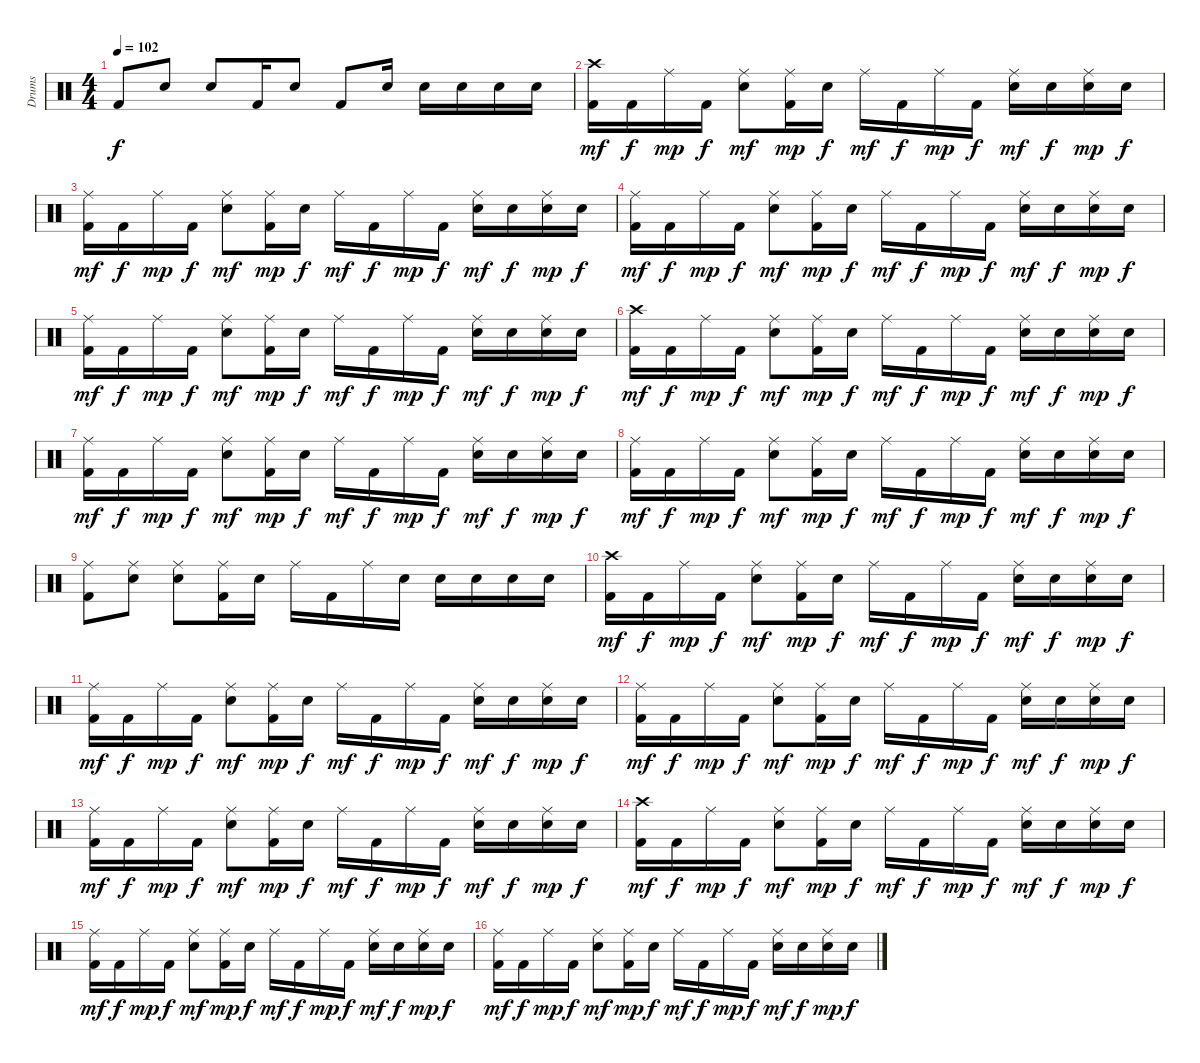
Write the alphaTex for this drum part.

\track ("Drums" "Drums") {instrument percussion}
\staff {score}
\articulation defaults
\ts (4 4)
\tempo 102
\clef neutral
\ks c "Kick (hit) 2".8{dy f} "Snare (hit) 2".8 "Snare (hit) 2".8 "Kick (hit) 2".16 "Snare (hit) 2".8 "Kick (hit) 2".8 "Snare (hit) 2".16 "Snare (hit) 2".16 "Snare (hit) 2".16 "Snare (hit) 2".16 "Snare (hit) 2".16
|
("Crash high (hit)" "Kick (hit) 2").16{dy mf} "Kick (hit) 2".16{dy f} "Ride (middle)".16{dy mp} "Kick (hit) 2".16{dy f} ("Ride (middle)" "Snare (hit) 2").8{dy mf} ("Ride (middle)" "Kick (hit) 2").16{dy mp} "Snare (hit) 2".16{dy f} "Ride (middle)".16{dy mf} "Kick (hit) 2".16{dy f} "Ride (middle)".16{dy mp} "Kick (hit) 2".16{dy f} ("Ride (middle)" "Snare (hit) 2").16{dy mf} "Snare (hit) 2".16{dy f} ("Ride (middle)" "Snare (hit) 2").16{dy mp} "Snare (hit) 2".16{dy f} |
("Ride (middle)" "Kick (hit) 2").16{dy mf} "Kick (hit) 2".16{dy f} "Ride (middle)".16{dy mp} "Kick (hit) 2".16{dy f} ("Ride (middle)" "Snare (hit) 2").8{dy mf} ("Ride (middle)" "Kick (hit) 2").16{dy mp} "Snare (hit) 2".16{dy f} "Ride (middle)".16{dy mf} "Kick (hit) 2".16{dy f} "Ride (middle)".16{dy mp} "Kick (hit) 2".16{dy f} ("Ride (middle)" "Snare (hit) 2").16{dy mf} "Snare (hit) 2".16{dy f} ("Ride (middle)" "Snare (hit) 2").16{dy mp} "Snare (hit) 2".16{dy f} |
("Ride (middle)" "Kick (hit) 2").16{dy mf} "Kick (hit) 2".16{dy f} "Ride (middle)".16{dy mp} "Kick (hit) 2".16{dy f} ("Ride (middle)" "Snare (hit) 2").8{dy mf} ("Ride (middle)" "Kick (hit) 2").16{dy mp} "Snare (hit) 2".16{dy f} "Ride (middle)".16{dy mf} "Kick (hit) 2".16{dy f} "Ride (middle)".16{dy mp} "Kick (hit) 2".16{dy f} ("Ride (middle)" "Snare (hit) 2").16{dy mf} "Snare (hit) 2".16{dy f} ("Ride (middle)" "Snare (hit) 2").16{dy mp} "Snare (hit) 2".16{dy f} |
("Ride (middle)" "Kick (hit) 2").16{dy mf} "Kick (hit) 2".16{dy f} "Ride (middle)".16{dy mp} "Kick (hit) 2".16{dy f} ("Ride (middle)" "Snare (hit) 2").8{dy mf} ("Ride (middle)" "Kick (hit) 2").16{dy mp} "Snare (hit) 2".16{dy f} "Ride (middle)".16{dy mf} "Kick (hit) 2".16{dy f} "Ride (middle)".16{dy mp} "Kick (hit) 2".16{dy f} ("Ride (middle)" "Snare (hit) 2").16{dy mf} "Snare (hit) 2".16{dy f} ("Ride (middle)" "Snare (hit) 2").16{dy mp} "Snare (hit) 2".16{dy f} |
("Crash high (hit)" "Kick (hit) 2").16{dy mf} "Kick (hit) 2".16{dy f} "Ride (middle)".16{dy mp} "Kick (hit) 2".16{dy f} ("Ride (middle)" "Snare (hit) 2").8{dy mf} ("Ride (middle)" "Kick (hit) 2").16{dy mp} "Snare (hit) 2".16{dy f} "Ride (middle)".16{dy mf} "Kick (hit) 2".16{dy f} "Ride (middle)".16{dy mp} "Kick (hit) 2".16{dy f} ("Ride (middle)" "Snare (hit) 2").16{dy mf} "Snare (hit) 2".16{dy f} ("Ride (middle)" "Snare (hit) 2").16{dy mp} "Snare (hit) 2".16{dy f} |
("Ride (middle)" "Kick (hit) 2").16{dy mf} "Kick (hit) 2".16{dy f} "Ride (middle)".16{dy mp} "Kick (hit) 2".16{dy f} ("Ride (middle)" "Snare (hit) 2").8{dy mf} ("Ride (middle)" "Kick (hit) 2").16{dy mp} "Snare (hit) 2".16{dy f} "Ride (middle)".16{dy mf} "Kick (hit) 2".16{dy f} "Ride (middle)".16{dy mp} "Kick (hit) 2".16{dy f} ("Ride (middle)" "Snare (hit) 2").16{dy mf} "Snare (hit) 2".16{dy f} ("Ride (middle)" "Snare (hit) 2").16{dy mp} "Snare (hit) 2".16{dy f} |
("Ride (middle)" "Kick (hit) 2").16{dy mf} "Kick (hit) 2".16{dy f} "Ride (middle)".16{dy mp} "Kick (hit) 2".16{dy f} ("Ride (middle)" "Snare (hit) 2").8{dy mf} ("Ride (middle)" "Kick (hit) 2").16{dy mp} "Snare (hit) 2".16{dy f} "Ride (middle)".16{dy mf} "Kick (hit) 2".16{dy f} "Ride (middle)".16{dy mp} "Kick (hit) 2".16{dy f} ("Ride (middle)" "Snare (hit) 2").16{dy mf} "Snare (hit) 2".16{dy f} ("Ride (middle)" "Snare (hit) 2").16{dy mp} "Snare (hit) 2".16{dy f} |
("Ride (middle)" "Kick (hit) 2").8 ("Ride (middle)" "Snare (hit) 2").8 ("Ride (middle)" "Snare (hit) 2").8 ("Ride (middle)" "Kick (hit) 2").16 "Snare (hit) 2".16 "Ride (middle)".16 "Kick (hit) 2".16 "Ride (middle)".16 "Snare (hit) 2".16 "Snare (hit) 2".16 "Snare (hit) 2".16 "Snare (hit) 2".16 "Snare (hit) 2".16 |
("Crash high (hit)" "Kick (hit) 2").16{dy mf} "Kick (hit) 2".16{dy f} "Ride (middle)".16{dy mp} "Kick (hit) 2".16{dy f} ("Ride (middle)" "Snare (hit) 2").8{dy mf} ("Ride (middle)" "Kick (hit) 2").16{dy mp} "Snare (hit) 2".16{dy f} "Ride (middle)".16{dy mf} "Kick (hit) 2".16{dy f} "Ride (middle)".16{dy mp} "Kick (hit) 2".16{dy f} ("Ride (middle)" "Snare (hit) 2").16{dy mf} "Snare (hit) 2".16{dy f} ("Ride (middle)" "Snare (hit) 2").16{dy mp} "Snare (hit) 2".16{dy f} |
("Ride (middle)" "Kick (hit) 2").16{dy mf} "Kick (hit) 2".16{dy f} "Ride (middle)".16{dy mp} "Kick (hit) 2".16{dy f} ("Ride (middle)" "Snare (hit) 2").8{dy mf} ("Ride (middle)" "Kick (hit) 2").16{dy mp} "Snare (hit) 2".16{dy f} "Ride (middle)".16{dy mf} "Kick (hit) 2".16{dy f} "Ride (middle)".16{dy mp} "Kick (hit) 2".16{dy f} ("Ride (middle)" "Snare (hit) 2").16{dy mf} "Snare (hit) 2".16{dy f} ("Ride (middle)" "Snare (hit) 2").16{dy mp} "Snare (hit) 2".16{dy f} |
("Ride (middle)" "Kick (hit) 2").16{dy mf} "Kick (hit) 2".16{dy f} "Ride (middle)".16{dy mp} "Kick (hit) 2".16{dy f} ("Ride (middle)" "Snare (hit) 2").8{dy mf} ("Ride (middle)" "Kick (hit) 2").16{dy mp} "Snare (hit) 2".16{dy f} "Ride (middle)".16{dy mf} "Kick (hit) 2".16{dy f} "Ride (middle)".16{dy mp} "Kick (hit) 2".16{dy f} ("Ride (middle)" "Snare (hit) 2").16{dy mf} "Snare (hit) 2".16{dy f} ("Ride (middle)" "Snare (hit) 2").16{dy mp} "Snare (hit) 2".16{dy f} |
("Ride (middle)" "Kick (hit) 2").16{dy mf} "Kick (hit) 2".16{dy f} "Ride (middle)".16{dy mp} "Kick (hit) 2".16{dy f} ("Ride (middle)" "Snare (hit) 2").8{dy mf} ("Ride (middle)" "Kick (hit) 2").16{dy mp} "Snare (hit) 2".16{dy f} "Ride (middle)".16{dy mf} "Kick (hit) 2".16{dy f} "Ride (middle)".16{dy mp} "Kick (hit) 2".16{dy f} ("Ride (middle)" "Snare (hit) 2").16{dy mf} "Snare (hit) 2".16{dy f} ("Ride (middle)" "Snare (hit) 2").16{dy mp} "Snare (hit) 2".16{dy f} |
("Crash high (hit)" "Kick (hit) 2").16{dy mf} "Kick (hit) 2".16{dy f} "Ride (middle)".16{dy mp} "Kick (hit) 2".16{dy f} ("Ride (middle)" "Snare (hit) 2").8{dy mf} ("Ride (middle)" "Kick (hit) 2").16{dy mp} "Snare (hit) 2".16{dy f} "Ride (middle)".16{dy mf} "Kick (hit) 2".16{dy f} "Ride (middle)".16{dy mp} "Kick (hit) 2".16{dy f} ("Ride (middle)" "Snare (hit) 2").16{dy mf} "Snare (hit) 2".16{dy f} ("Ride (middle)" "Snare (hit) 2").16{dy mp} "Snare (hit) 2".16{dy f} |
("Ride (middle)" "Kick (hit) 2").16{dy mf} "Kick (hit) 2".16{dy f} "Ride (middle)".16{dy mp} "Kick (hit) 2".16{dy f} ("Ride (middle)" "Snare (hit) 2").8{dy mf} ("Ride (middle)" "Kick (hit) 2").16{dy mp} "Snare (hit) 2".16{dy f} "Ride (middle)".16{dy mf} "Kick (hit) 2".16{dy f} "Ride (middle)".16{dy mp} "Kick (hit) 2".16{dy f} ("Ride (middle)" "Snare (hit) 2").16{dy mf} "Snare (hit) 2".16{dy f} ("Ride (middle)" "Snare (hit) 2").16{dy mp} "Snare (hit) 2".16{dy f} |
("Ride (middle)" "Kick (hit) 2").16{dy mf} "Kick (hit) 2".16{dy f} "Ride (middle)".16{dy mp} "Kick (hit) 2".16{dy f} ("Ride (middle)" "Snare (hit) 2").8{dy mf} ("Ride (middle)" "Kick (hit) 2").16{dy mp} "Snare (hit) 2".16{dy f} "Ride (middle)".16{dy mf} "Kick (hit) 2".16{dy f} "Ride (middle)".16{dy mp} "Kick (hit) 2".16{dy f} ("Ride (middle)" "Snare (hit) 2").16{dy mf} "Snare (hit) 2".16{dy f} ("Ride (middle)" "Snare (hit) 2").16{dy mp} "Snare (hit) 2".16{dy f}
